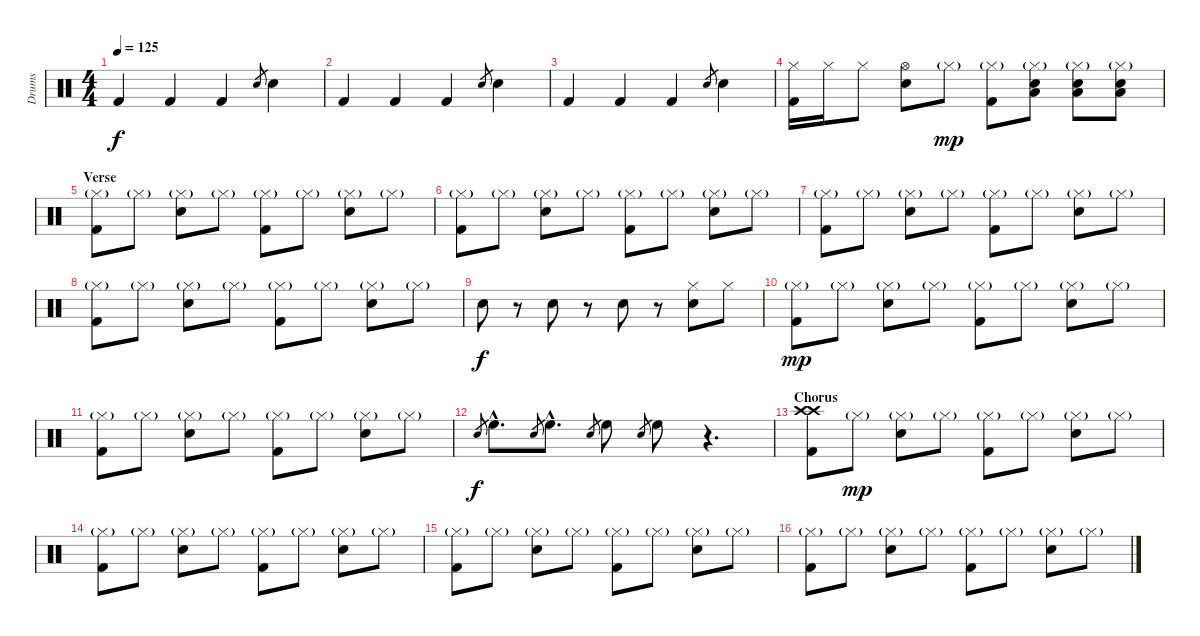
\track ("Drums" "Drums") {instrument percussion}
\staff {score}
\articulation defaults
\ts (4 4)
\tempo 125
\clef neutral
\ks c "Kick (hit) 2".4{dy f balance 8} "Kick (hit) 2".4 "Kick (hit) 2".4 "Snare (hit) 2".8{gr} "Snare (hit) 2".4
|
"Kick (hit) 2".4 "Kick (hit) 2".4 "Kick (hit) 2".4 "Snare (hit) 2".8{gr} "Snare (hit) 2".4 |
"Kick (hit) 2".4 "Kick (hit) 2".4 "Kick (hit) 2".4 "Snare (hit) 2".8{gr} "Snare (hit) 2".4 |
("Hi-Hat (closed)" "Kick (hit) 2").16 "Hi-Hat (closed)".16 "Hi-Hat (closed)".8 ("Hi-Hat (open)" "Snare (hit) 2").8 "Hi-Hat (closed)"{g}.8{dy mp} ("Hi-Hat (closed)"{g} "Kick (hit) 2").8 ("Hi-Hat (closed)"{g} "Snare (hit) 2" "Low Tom (hit)").8 ("Hi-Hat (closed)"{g} "Snare (hit) 2" "Low Tom (hit)").8 ("Hi-Hat (closed)"{g} "Snare (hit) 2" "Low Tom (hit)").8 |
\section ("" "Verse")
("Hi-Hat (closed)"{g} "Kick (hit) 2").8{balance 8} "Hi-Hat (closed)"{g}.8 ("Hi-Hat (closed)"{g} "Snare (hit) 2").8 "Hi-Hat (closed)"{g}.8 ("Hi-Hat (closed)"{g} "Kick (hit) 2").8 "Hi-Hat (closed)"{g}.8 ("Hi-Hat (closed)"{g} "Snare (hit) 2").8 "Hi-Hat (closed)"{g}.8 |
("Hi-Hat (closed)"{g} "Kick (hit) 2").8 "Hi-Hat (closed)"{g}.8 ("Hi-Hat (closed)"{g} "Snare (hit) 2").8 "Hi-Hat (closed)"{g}.8 ("Hi-Hat (closed)"{g} "Kick (hit) 2").8 "Hi-Hat (closed)"{g}.8 ("Hi-Hat (closed)"{g} "Snare (hit) 2").8 "Hi-Hat (closed)"{g}.8 |
("Hi-Hat (closed)"{g} "Kick (hit) 2").8 "Hi-Hat (closed)"{g}.8 ("Hi-Hat (closed)"{g} "Snare (hit) 2").8 "Hi-Hat (closed)"{g}.8 ("Hi-Hat (closed)"{g} "Kick (hit) 2").8 "Hi-Hat (closed)"{g}.8 ("Hi-Hat (closed)"{g} "Snare (hit) 2").8 "Hi-Hat (closed)"{g}.8 |
("Hi-Hat (closed)"{g} "Kick (hit) 2").8 "Hi-Hat (closed)"{g}.8 ("Hi-Hat (closed)"{g} "Snare (hit) 2").8 "Hi-Hat (closed)"{g}.8 ("Hi-Hat (closed)"{g} "Kick (hit) 2").8 "Hi-Hat (closed)"{g}.8 ("Hi-Hat (closed)"{g} "Snare (hit) 2").8 "Hi-Hat (closed)"{g}.8 |
"Snare (hit) 2".8{dy f balance 8} r.8 "Snare (hit) 2".8 r.8 "Snare (hit) 2".8 r.8 ("Hi-Hat (closed)" "Snare (hit) 2").8 "Hi-Hat (closed)".8 |
("Hi-Hat (closed)"{g} "Kick (hit) 2").8{dy mp} "Hi-Hat (closed)"{g}.8 ("Hi-Hat (closed)"{g} "Snare (hit) 2").8 "Hi-Hat (closed)"{g}.8 ("Hi-Hat (closed)"{g} "Kick (hit) 2").8 "Hi-Hat (closed)"{g}.8 ("Hi-Hat (closed)"{g} "Snare (hit) 2").8 "Hi-Hat (closed)"{g}.8 |
("Hi-Hat (closed)"{g} "Kick (hit) 2").8 "Hi-Hat (closed)"{g}.8 ("Hi-Hat (closed)"{g} "Snare (hit) 2").8 "Hi-Hat (closed)"{g}.8 ("Hi-Hat (closed)"{g} "Kick (hit) 2").8 "Hi-Hat (closed)"{g}.8 ("Hi-Hat (closed)"{g} "Snare (hit) 2").8 "Hi-Hat (closed)"{g}.8 |
"Snare (hit) 2".8{gr dy f} "High Floor Tom (hit)"{hac}.8{d} "Snare (hit) 2".8{gr} "High Floor Tom (hit)"{hac}.8{d} "Snare (hit) 2".8{gr} "High Floor Tom (hit)".8 "Snare (hit) 2".8{gr} "High Floor Tom (hit)".8 r.4{d} |
\section ("" "Chorus")
("Crash high (hit)" "Kick (hit) 2" "Crash high (hit)").8 "Hi-Hat (closed)"{g}.8{dy mp} ("Hi-Hat (closed)"{g} "Snare (hit) 2").8 "Hi-Hat (closed)"{g}.8 ("Hi-Hat (closed)"{g} "Kick (hit) 2").8 "Hi-Hat (closed)"{g}.8 ("Hi-Hat (closed)"{g} "Snare (hit) 2").8 "Hi-Hat (closed)"{g}.8 |
("Hi-Hat (closed)"{g} "Kick (hit) 2").8 "Hi-Hat (closed)"{g}.8 ("Hi-Hat (closed)"{g} "Snare (hit) 2").8 "Hi-Hat (closed)"{g}.8 ("Hi-Hat (closed)"{g} "Kick (hit) 2").8 "Hi-Hat (closed)"{g}.8 ("Hi-Hat (closed)"{g} "Snare (hit) 2").8 "Hi-Hat (closed)"{g}.8 |
("Hi-Hat (closed)"{g} "Kick (hit) 2").8 "Hi-Hat (closed)"{g}.8 ("Hi-Hat (closed)"{g} "Snare (hit) 2").8 "Hi-Hat (closed)"{g}.8 ("Hi-Hat (closed)"{g} "Kick (hit) 2").8 "Hi-Hat (closed)"{g}.8 ("Hi-Hat (closed)"{g} "Snare (hit) 2").8 "Hi-Hat (closed)"{g}.8 |
("Hi-Hat (closed)"{g} "Kick (hit) 2").8 "Hi-Hat (closed)"{g}.8 ("Hi-Hat (closed)"{g} "Snare (hit) 2").8 "Hi-Hat (closed)"{g}.8 ("Hi-Hat (closed)"{g} "Kick (hit) 2").8 "Hi-Hat (closed)"{g}.8 ("Hi-Hat (closed)"{g} "Snare (hit) 2").8 "Hi-Hat (closed)"{g}.8
